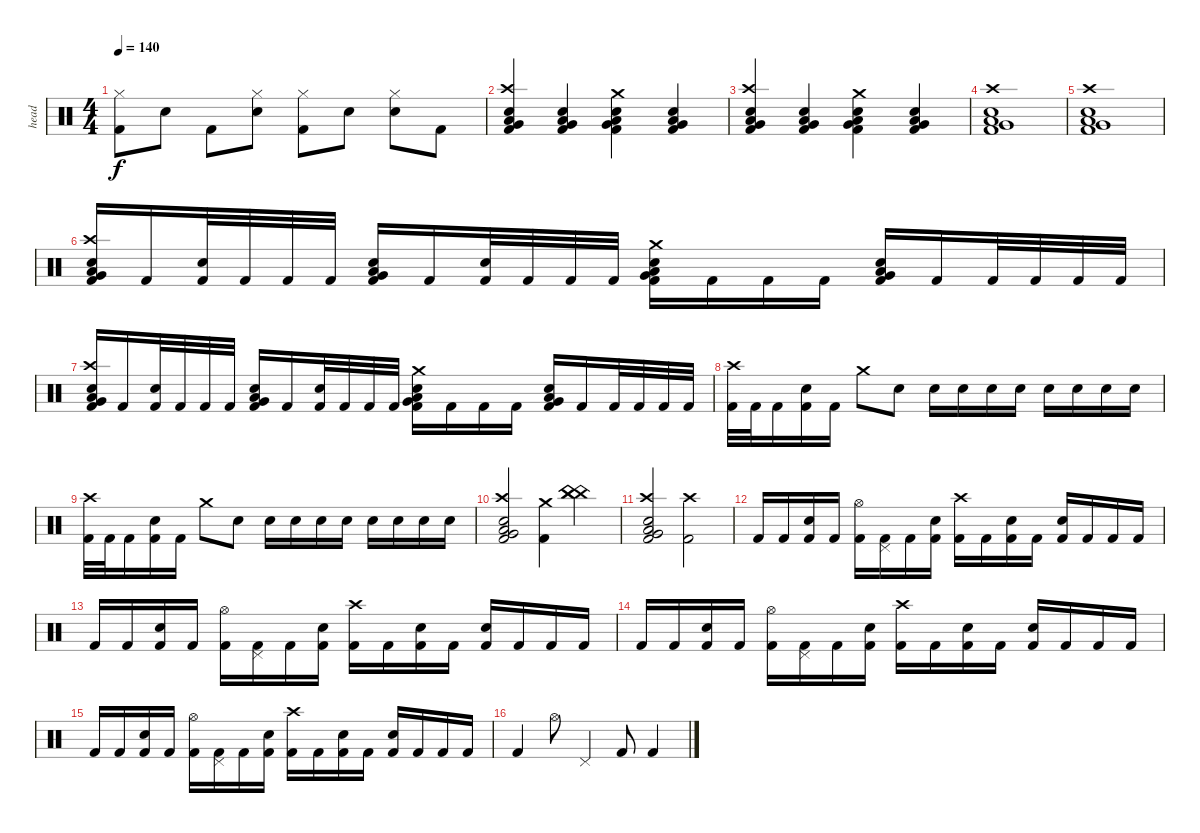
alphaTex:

\track ("head" "head") {instrument percussion}
\staff {score}
\articulation defaults
\ts (4 4)
\tempo 140
\clef neutral
\ks c
("Hi-Hat (closed)" "Kick (hit) 2").8{dy f} "Snare (hit) 2".8 "Kick (hit) 2".8 ("Hi-Hat (closed)" "Snare (hit) 2").8 ("Hi-Hat (closed)" "Kick (hit) 2").8 "Snare (hit) 2".8 ("Hi-Hat (closed)" "Snare (hit) 2").8 "Kick (hit) 2".8 |
("Crash high (hit)" "Snare (hit) 2" "Very Low Tom (hit)" "Low Tom (hit)" "Kick (hit) 2").4 ("Snare (hit) 2" "Very Low Tom (hit)" "Low Tom (hit)" "Kick (hit) 2").4 ("Crash medium (hit)" "Snare (hit) 2" "Very Low Tom (hit)" "Low Tom (hit)" "Kick (hit) 2").4 ("Snare (hit) 2" "Very Low Tom (hit)" "Low Tom (hit)" "Kick (hit) 2").4 |
("Crash high (hit)" "Snare (hit) 2" "Very Low Tom (hit)" "Low Tom (hit)" "Kick (hit) 2").4 ("Snare (hit) 2" "Very Low Tom (hit)" "Low Tom (hit)" "Kick (hit) 2").4 ("Crash medium (hit)" "Snare (hit) 2" "Very Low Tom (hit)" "Low Tom (hit)" "Kick (hit) 2").4 ("Snare (hit) 2" "Very Low Tom (hit)" "Low Tom (hit)" "Kick (hit) 2").4 |
("Crash high (hit)" "Snare (hit) 2" "Very Low Tom (hit)" "Low Tom (hit)" "Kick (hit) 2").1 |
("Crash high (hit)" "Snare (hit) 2" "Very Low Tom (hit)" "Low Tom (hit)" "Kick (hit) 2").1 |
("Crash high (hit)" "Snare (hit) 2" "Very Low Tom (hit)" "Low Tom (hit)" "Kick (hit) 2").16 "Kick (hit) 2".16 ("Snare (hit) 2" "Kick (hit) 2").32 "Kick (hit) 2".32 "Kick (hit) 2".32 "Kick (hit) 2".32 ("Snare (hit) 2" "Very Low Tom (hit)" "Low Tom (hit)" "Kick (hit) 2").16 "Kick (hit) 2".16 ("Snare (hit) 2" "Kick (hit) 2").32 "Kick (hit) 2".32 "Kick (hit) 2".32 "Kick (hit) 2".32 ("Crash medium (hit)" "Snare (hit) 2" "Very Low Tom (hit)" "Low Tom (hit)" "Kick (hit) 2").16 "Kick (hit) 2".16 "Kick (hit) 2".16 "Kick (hit) 2".16 ("Snare (hit) 2" "Very Low Tom (hit)" "Low Tom (hit)" "Kick (hit) 2").16 "Kick (hit) 2".16 "Kick (hit) 2".32 "Kick (hit) 2".32 "Kick (hit) 2".32 "Kick (hit) 2".32 |
("Crash high (hit)" "Snare (hit) 2" "Very Low Tom (hit)" "Low Tom (hit)" "Kick (hit) 2").16 "Kick (hit) 2".16 ("Snare (hit) 2" "Kick (hit) 2").32 "Kick (hit) 2".32 "Kick (hit) 2".32 "Kick (hit) 2".32 ("Snare (hit) 2" "Very Low Tom (hit)" "Low Tom (hit)" "Kick (hit) 2").16 "Kick (hit) 2".16 ("Snare (hit) 2" "Kick (hit) 2").32 "Kick (hit) 2".32 "Kick (hit) 2".32 "Kick (hit) 2".32 ("Crash medium (hit)" "Snare (hit) 2" "Very Low Tom (hit)" "Low Tom (hit)" "Kick (hit) 2").16 "Kick (hit) 2".16 "Kick (hit) 2".16 "Kick (hit) 2".16 ("Snare (hit) 2" "Very Low Tom (hit)" "Low Tom (hit)" "Kick (hit) 2").16 "Kick (hit) 2".16 "Kick (hit) 2".32 "Kick (hit) 2".32 "Kick (hit) 2".32 "Kick (hit) 2".32 |
("Crash high (hit)" "Kick (hit) 2").32 "Kick (hit) 2".32 "Kick (hit) 2".16 ("Snare (hit) 2" "Kick (hit) 2").16 "Kick (hit) 2".16 "Crash medium (hit)".8 "Snare (hit) 2".8 "Snare (hit) 2".16 "Snare (hit) 2".16 "Snare (hit) 2".16 "Snare (hit) 2".16 "Snare (hit) 2".16 "Snare (hit) 2".16 "Snare (hit) 2".16 "Snare (hit) 2".16 |
("Crash high (hit)" "Kick (hit) 2").32 "Kick (hit) 2".32 "Kick (hit) 2".16 ("Snare (hit) 2" "Kick (hit) 2").16 "Kick (hit) 2".16 "Crash medium (hit)".8 "Snare (hit) 2".8 "Snare (hit) 2".16 "Snare (hit) 2".16 "Snare (hit) 2".16 "Snare (hit) 2".16 "Snare (hit) 2".16 "Snare (hit) 2".16 "Snare (hit) 2".16 "Snare (hit) 2".16 |
("Crash high (hit)" "Snare (hit) 2" "Very Low Tom (hit)" "Low Tom (hit)" "Kick (hit) 2").2 ("Crash medium (hit)" "Kick (hit) 2").4 ("China (hit)" "China (hit)" "China (hit)").4 |
("Crash high (hit)" "Snare (hit) 2" "Very Low Tom (hit)" "Low Tom (hit)" "Kick (hit) 2").2 ("Crash high (hit)" "Kick (hit) 2").2 |
"Kick (hit) 2".16 "Kick (hit) 2".16 ("Snare (hit) 2" "Kick (hit) 2").16 "Kick (hit) 2".16 ("Hi-Hat (open)" "Kick (hit) 2").16 ("Pedal Hi-Hat (hit)" "Kick (hit) 2").16 "Kick (hit) 2".16 ("Snare (hit) 2" "Kick (hit) 2").16 ("Crash high (hit)" "Kick (hit) 2").16 "Kick (hit) 2".16 ("Snare (hit) 2" "Kick (hit) 2").16 "Kick (hit) 2".16 ("Snare (hit) 2" "Kick (hit) 2").16 "Kick (hit) 2".16 "Kick (hit) 2".16 "Kick (hit) 2".16 |
"Kick (hit) 2".16 "Kick (hit) 2".16 ("Snare (hit) 2" "Kick (hit) 2").16 "Kick (hit) 2".16 ("Hi-Hat (open)" "Kick (hit) 2").16 ("Pedal Hi-Hat (hit)" "Kick (hit) 2").16 "Kick (hit) 2".16 ("Snare (hit) 2" "Kick (hit) 2").16 ("Crash high (hit)" "Kick (hit) 2").16 "Kick (hit) 2".16 ("Snare (hit) 2" "Kick (hit) 2").16 "Kick (hit) 2".16 ("Snare (hit) 2" "Kick (hit) 2").16 "Kick (hit) 2".16 "Kick (hit) 2".16 "Kick (hit) 2".16 |
"Kick (hit) 2".16 "Kick (hit) 2".16 ("Snare (hit) 2" "Kick (hit) 2").16 "Kick (hit) 2".16 ("Hi-Hat (open)" "Kick (hit) 2").16 ("Pedal Hi-Hat (hit)" "Kick (hit) 2").16 "Kick (hit) 2".16 ("Snare (hit) 2" "Kick (hit) 2").16 ("Crash high (hit)" "Kick (hit) 2").16 "Kick (hit) 2".16 ("Snare (hit) 2" "Kick (hit) 2").16 "Kick (hit) 2".16 ("Snare (hit) 2" "Kick (hit) 2").16 "Kick (hit) 2".16 "Kick (hit) 2".16 "Kick (hit) 2".16 |
"Kick (hit) 2".16 "Kick (hit) 2".16 ("Snare (hit) 2" "Kick (hit) 2").16 "Kick (hit) 2".16 ("Hi-Hat (open)" "Kick (hit) 2").16 ("Pedal Hi-Hat (hit)" "Kick (hit) 2").16 "Kick (hit) 2".16 ("Snare (hit) 2" "Kick (hit) 2").16 ("Crash high (hit)" "Kick (hit) 2").16 "Kick (hit) 2".16 ("Snare (hit) 2" "Kick (hit) 2").16 "Kick (hit) 2".16 ("Snare (hit) 2" "Kick (hit) 2").16 "Kick (hit) 2".16 "Kick (hit) 2".16 "Kick (hit) 2".16 |
"Kick (hit) 2".4 "Hi-Hat (open)".8 "Pedal Hi-Hat (hit)".4 "Kick (hit) 2".8 "Kick (hit) 2".4
